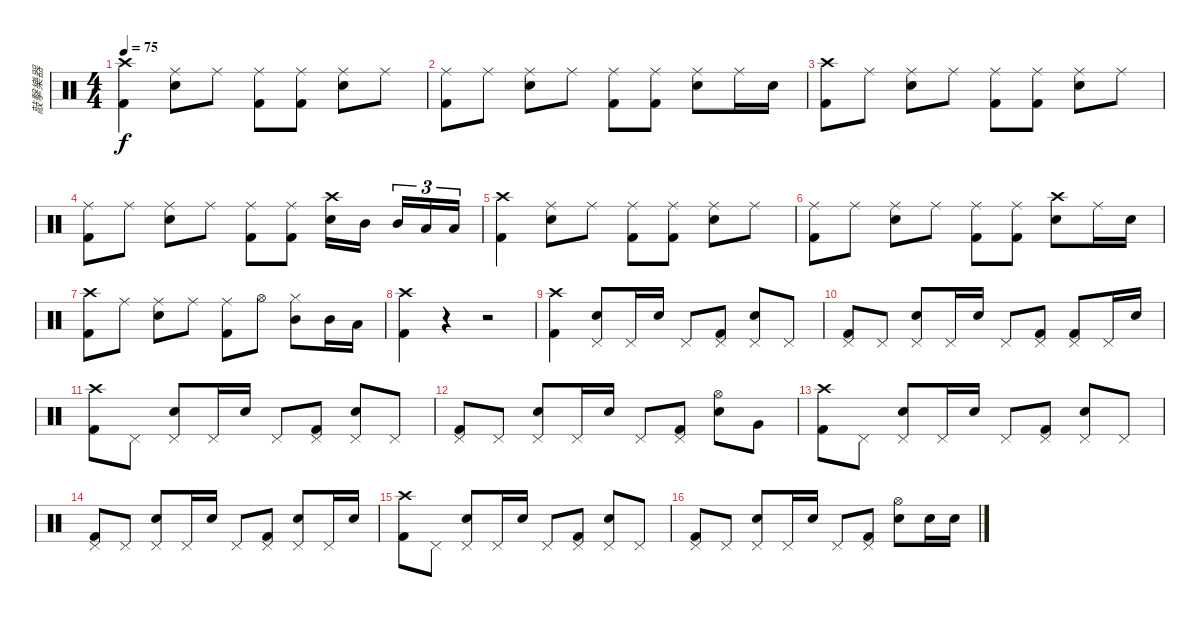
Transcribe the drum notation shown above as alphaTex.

\track ("敲擊樂器" "敲擊樂器") {instrument percussion}
\staff {score}
\articulation defaults
\ts (4 4)
\tempo 75
\clef neutral
\ks c
("Crash high (hit)" "Kick (hit) 2").4{dy f} ("Ride (middle)" "Snare (hit) 2").8 "Ride (middle)".8 ("Ride (middle)" "Kick (hit) 2").8 ("Ride (middle)" "Kick (hit) 2").8 ("Ride (middle)" "Snare (hit) 2").8 "Ride (middle)".8 |
("Ride (middle)" "Kick (hit) 2").8 "Ride (middle)".8 ("Ride (middle)" "Snare (hit) 2").8 "Ride (middle)".8 ("Ride (middle)" "Kick (hit) 2").8 ("Ride (middle)" "Kick (hit) 2").8 ("Ride (middle)" "Snare (hit) 2").8 "Ride (middle)".16 "Snare (hit) 2".16 |
("Crash high (hit)" "Kick (hit) 2").8 "Ride (middle)".8 ("Ride (middle)" "Snare (hit) 2").8 "Ride (middle)".8 ("Ride (middle)" "Kick (hit) 2").8 ("Ride (middle)" "Kick (hit) 2").8 ("Ride (middle)" "Snare (hit) 2").8 "Ride (middle)".8 |
("Ride (middle)" "Kick (hit) 2").8 "Ride (middle)".8 ("Ride (middle)" "Snare (hit) 2").8 "Ride (middle)".8 ("Ride (middle)" "Kick (hit) 2").8 ("Ride (middle)" "Kick (hit) 2").8 ("Crash high (hit)" "Snare (hit) 2").16 "Mid Tom (hit)".16 "Mid Tom (hit)".16{tu (3 2)} "Low Tom (hit)".16{tu (3 2)} "Low Tom (hit)".16{tu (3 2)} |
("Crash high (hit)" "Kick (hit) 2").4 ("Snare (hit) 2" "Ride (middle)").8 "Ride (middle)".8 ("Kick (hit) 2" "Ride (middle)").8 ("Kick (hit) 2" "Ride (middle)").8 ("Snare (hit) 2" "Ride (middle)").8 "Ride (middle)".8 |
("Kick (hit) 2" "Ride (middle)").8 "Ride (middle)".8 ("Snare (hit) 2" "Ride (middle)").8 "Ride (middle)".8 ("Kick (hit) 2" "Ride (middle)").8 ("Kick (hit) 2" "Ride (middle)").8 ("Snare (hit) 2" "Crash high (hit)").8 "Ride (middle)".16 "Snare (hit) 2".16 |
("Crash high (hit)" "Kick (hit) 2").8 "Ride (middle)".8 ("Ride (middle)" "Snare (hit) 2").8 "Ride (middle)".8 ("Ride (middle)" "Kick (hit) 2").8 "Hi-Hat (open)".8 ("Hi-Hat (closed)" "Mid Tom (hit)").8 "Mid Tom (hit)".16 "Low Tom (hit)".16 |
("Crash high (hit)" "Kick (hit) 2").4 r.4 r.2 |
("Crash high (hit)" "Kick (hit) 2").4 ("Pedal Hi-Hat (hit)" "Snare (hit) 2").8 "Pedal Hi-Hat (hit)".16 "Snare (hit) 2".16 "Pedal Hi-Hat (hit)".8 ("Pedal Hi-Hat (hit)" "Kick (hit) 2").8 ("Snare (hit) 2" "Pedal Hi-Hat (hit)").8 "Pedal Hi-Hat (hit)".8 |
("Pedal Hi-Hat (hit)" "Kick (hit) 2").8 "Pedal Hi-Hat (hit)".8 ("Snare (hit) 2" "Pedal Hi-Hat (hit)").8 "Pedal Hi-Hat (hit)".16 "Snare (hit) 2".16 "Pedal Hi-Hat (hit)".8 ("Pedal Hi-Hat (hit)" "Kick (hit) 2").8 ("Kick (hit) 2" "Pedal Hi-Hat (hit)").8 "Pedal Hi-Hat (hit)".16 "Snare (hit) 2".16 |
("Crash high (hit)" "Kick (hit) 2").8 "Pedal Hi-Hat (hit)".8 ("Snare (hit) 2" "Pedal Hi-Hat (hit)").8 "Pedal Hi-Hat (hit)".16 "Snare (hit) 2".16 "Pedal Hi-Hat (hit)".8 ("Pedal Hi-Hat (hit)" "Kick (hit) 2").8 ("Pedal Hi-Hat (hit)" "Snare (hit) 2").8 "Pedal Hi-Hat (hit)".8 |
("Kick (hit) 2" "Pedal Hi-Hat (hit)").8 "Pedal Hi-Hat (hit)".8 ("Pedal Hi-Hat (hit)" "Snare (hit) 2").8 "Pedal Hi-Hat (hit)".16 "Snare (hit) 2".16 "Pedal Hi-Hat (hit)".8 ("Pedal Hi-Hat (hit)" "Kick (hit) 2").8 ("Hi-Hat (open)" "Snare (hit) 2").8 "Very Low Tom (hit)".8 |
("Kick (hit) 2" "Crash high (hit)").8 "Pedal Hi-Hat (hit)".8 ("Pedal Hi-Hat (hit)" "Snare (hit) 2").8 "Pedal Hi-Hat (hit)".16 "Snare (hit) 2".16 "Pedal Hi-Hat (hit)".8 ("Pedal Hi-Hat (hit)" "Kick (hit) 2").8 ("Snare (hit) 2" "Pedal Hi-Hat (hit)").8 "Pedal Hi-Hat (hit)".8 |
("Pedal Hi-Hat (hit)" "Kick (hit) 2").8 "Pedal Hi-Hat (hit)".8 ("Pedal Hi-Hat (hit)" "Snare (hit) 2").8 "Pedal Hi-Hat (hit)".16 "Snare (hit) 2".16 "Pedal Hi-Hat (hit)".8 ("Pedal Hi-Hat (hit)" "Kick (hit) 2").8 ("Snare (hit) 2" "Pedal Hi-Hat (hit)").8 "Pedal Hi-Hat (hit)".16 "Snare (hit) 2".16 |
("Crash high (hit)" "Kick (hit) 2").8 "Pedal Hi-Hat (hit)".8 ("Pedal Hi-Hat (hit)" "Snare (hit) 2").8 "Pedal Hi-Hat (hit)".16 "Snare (hit) 2".16 "Pedal Hi-Hat (hit)".8 ("Pedal Hi-Hat (hit)" "Kick (hit) 2").8 ("Pedal Hi-Hat (hit)" "Snare (hit) 2").8 "Pedal Hi-Hat (hit)".8 |
("Kick (hit) 2" "Pedal Hi-Hat (hit)").8 "Pedal Hi-Hat (hit)".8 ("Pedal Hi-Hat (hit)" "Snare (hit) 2").8 "Pedal Hi-Hat (hit)".16 "Snare (hit) 2".16 "Pedal Hi-Hat (hit)".8 ("Pedal Hi-Hat (hit)" "Kick (hit) 2").8 ("Hi-Hat (open)" "Snare (hit) 2").8 "Snare (hit) 2".16 "Snare (hit) 2".16
